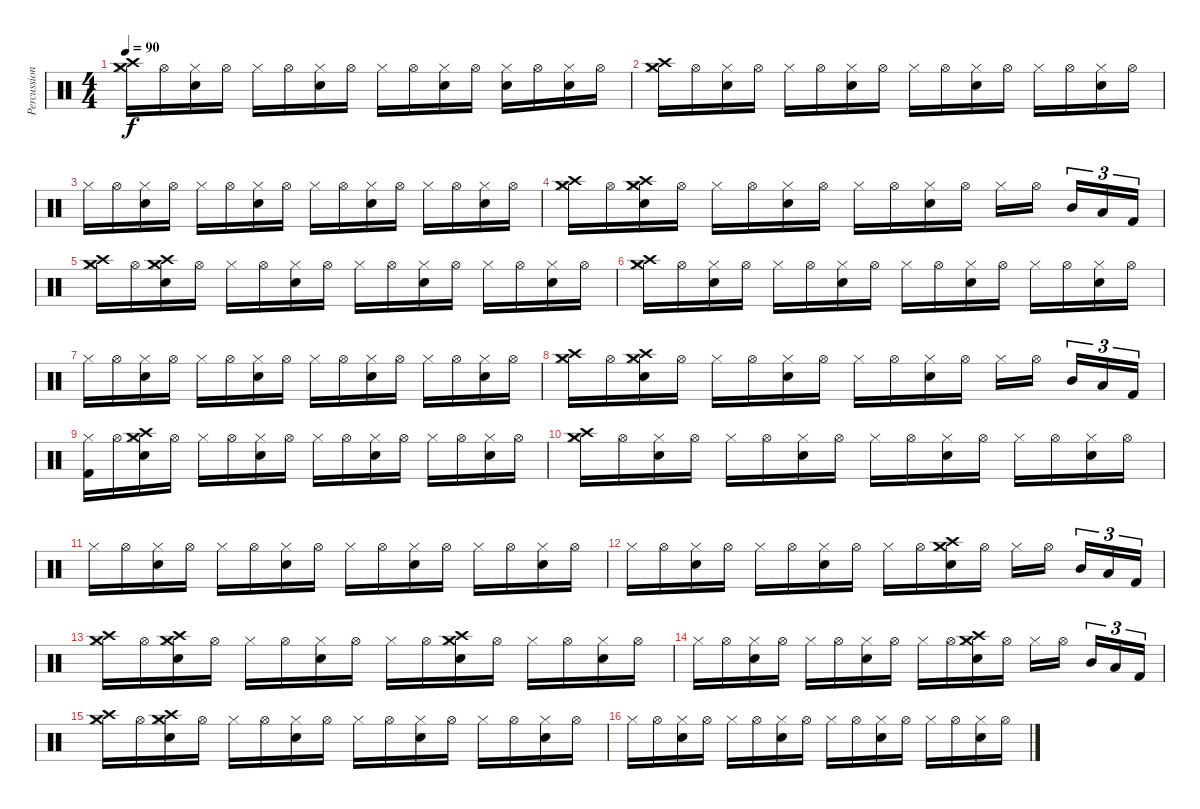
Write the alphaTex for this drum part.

\track ("Percussions" "Percussion") {instrument percussion}
\staff {score}
\articulation defaults
\ts (4 4)
\tempo 90
\clef neutral
\ks c
("Crash high (hit)" "Hi-Hat (closed)" "Crash medium (hit)").16{dy f} "Hi-Hat (open)".16 ("Snare (hit) 2" "Hi-Hat (closed)").16 "Hi-Hat (open)".16 "Hi-Hat (closed)".16 "Hi-Hat (open)".16 ("Snare (hit) 2" "Hi-Hat (closed)").16 "Hi-Hat (open)".16 "Hi-Hat (closed)".16 "Hi-Hat (open)".16 ("Snare (hit) 2" "Hi-Hat (closed)").16 "Hi-Hat (open)".16 ("Snare (hit) 2" "Hi-Hat (closed)").16 "Hi-Hat (open)".16 ("Snare (hit) 2" "Hi-Hat (closed)").16 "Hi-Hat (open)".16 |
("Crash high (hit)" "Hi-Hat (closed)" "Crash medium (hit)").16 "Hi-Hat (open)".16 ("Snare (hit) 2" "Hi-Hat (closed)").16 "Hi-Hat (open)".16 "Hi-Hat (closed)".16 "Hi-Hat (open)".16 ("Snare (hit) 2" "Hi-Hat (closed)").16 "Hi-Hat (open)".16 "Hi-Hat (closed)".16 "Hi-Hat (open)".16 ("Snare (hit) 2" "Hi-Hat (closed)").16 "Hi-Hat (open)".16 "Hi-Hat (closed)".16 "Hi-Hat (open)".16 ("Snare (hit) 2" "Hi-Hat (closed)").16 "Hi-Hat (open)".16 |
"Hi-Hat (closed)".16 "Hi-Hat (open)".16 ("Snare (hit) 2" "Hi-Hat (closed)").16 "Hi-Hat (open)".16 "Hi-Hat (closed)".16 "Hi-Hat (open)".16 ("Snare (hit) 2" "Hi-Hat (closed)").16 "Hi-Hat (open)".16 "Hi-Hat (closed)".16 "Hi-Hat (open)".16 ("Snare (hit) 2" "Hi-Hat (closed)").16 "Hi-Hat (open)".16 "Hi-Hat (closed)".16 "Hi-Hat (open)".16 ("Snare (hit) 2" "Hi-Hat (closed)").16 "Hi-Hat (open)".16 |
("Crash high (hit)" "Hi-Hat (closed)" "Crash medium (hit)").16 "Hi-Hat (open)".16 ("Snare (hit) 2" "Hi-Hat (closed)" "Crash high (hit)" "Crash medium (hit)").16 "Hi-Hat (open)".16 "Hi-Hat (closed)".16 "Hi-Hat (open)".16 ("Snare (hit) 2" "Hi-Hat (closed)").16 "Hi-Hat (open)".16 "Hi-Hat (closed)".16 "Hi-Hat (open)".16 ("Snare (hit) 2" "Hi-Hat (closed)").16 "Hi-Hat (open)".16 "Hi-Hat (closed)".16 "Hi-Hat (open)".16 "Mid Tom (hit)".16{tu (3 2)} "Low Tom (hit)".16{tu (3 2)} "Kick (hit) 2".16{tu (3 2)} |
("Crash high (hit)" "Hi-Hat (closed)" "Crash medium (hit)").16 "Hi-Hat (open)".16 ("Snare (hit) 2" "Hi-Hat (closed)" "Crash high (hit)" "Crash medium (hit)").16 "Hi-Hat (open)".16 "Hi-Hat (closed)".16 "Hi-Hat (open)".16 ("Snare (hit) 2" "Hi-Hat (closed)").16 "Hi-Hat (open)".16 "Hi-Hat (closed)".16 "Hi-Hat (open)".16 ("Snare (hit) 2" "Hi-Hat (closed)").16 "Hi-Hat (open)".16 "Hi-Hat (closed)".16 "Hi-Hat (open)".16 ("Snare (hit) 2" "Hi-Hat (closed)").16 "Hi-Hat (open)".16 |
("Crash high (hit)" "Hi-Hat (closed)" "Crash medium (hit)").16 "Hi-Hat (open)".16 ("Snare (hit) 2" "Hi-Hat (closed)").16 "Hi-Hat (open)".16 "Hi-Hat (closed)".16 "Hi-Hat (open)".16 ("Snare (hit) 2" "Hi-Hat (closed)").16 "Hi-Hat (open)".16 "Hi-Hat (closed)".16 "Hi-Hat (open)".16 ("Snare (hit) 2" "Hi-Hat (closed)").16 "Hi-Hat (open)".16 "Hi-Hat (closed)".16 "Hi-Hat (open)".16 ("Snare (hit) 2" "Hi-Hat (closed)").16 "Hi-Hat (open)".16 |
"Hi-Hat (closed)".16 "Hi-Hat (open)".16 ("Snare (hit) 2" "Hi-Hat (closed)").16 "Hi-Hat (open)".16 "Hi-Hat (closed)".16 "Hi-Hat (open)".16 ("Snare (hit) 2" "Hi-Hat (closed)").16 "Hi-Hat (open)".16 "Hi-Hat (closed)".16 "Hi-Hat (open)".16 ("Snare (hit) 2" "Hi-Hat (closed)").16 "Hi-Hat (open)".16 "Hi-Hat (closed)".16 "Hi-Hat (open)".16 ("Snare (hit) 2" "Hi-Hat (closed)").16 "Hi-Hat (open)".16 |
("Crash high (hit)" "Hi-Hat (closed)" "Crash medium (hit)").16 "Hi-Hat (open)".16 ("Snare (hit) 2" "Hi-Hat (closed)" "Crash high (hit)" "Crash medium (hit)").16 "Hi-Hat (open)".16 "Hi-Hat (closed)".16 "Hi-Hat (open)".16 ("Snare (hit) 2" "Hi-Hat (closed)").16 "Hi-Hat (open)".16 "Hi-Hat (closed)".16 "Hi-Hat (open)".16 ("Snare (hit) 2" "Hi-Hat (closed)").16 "Hi-Hat (open)".16 "Hi-Hat (closed)".16 "Hi-Hat (open)".16 "Mid Tom (hit)".16{tu (3 2)} "Low Tom (hit)".16{tu (3 2)} "Kick (hit) 2".16{tu (3 2)} |
("Hi-Hat (closed)" "Kick (hit) 2").16 "Hi-Hat (open)".16 ("Snare (hit) 2" "Hi-Hat (closed)" "Crash high (hit)" "Crash medium (hit)").16 "Hi-Hat (open)".16 "Hi-Hat (closed)".16 "Hi-Hat (open)".16 ("Snare (hit) 2" "Hi-Hat (closed)").16 "Hi-Hat (open)".16 "Hi-Hat (closed)".16 "Hi-Hat (open)".16 ("Snare (hit) 2" "Hi-Hat (closed)").16 "Hi-Hat (open)".16 "Hi-Hat (closed)".16 "Hi-Hat (open)".16 ("Snare (hit) 2" "Hi-Hat (closed)").16 "Hi-Hat (open)".16 |
("Crash high (hit)" "Hi-Hat (closed)" "Crash medium (hit)").16 "Hi-Hat (open)".16 ("Snare (hit) 2" "Hi-Hat (closed)").16 "Hi-Hat (open)".16 "Hi-Hat (closed)".16 "Hi-Hat (open)".16 ("Snare (hit) 2" "Hi-Hat (closed)").16 "Hi-Hat (open)".16 "Hi-Hat (closed)".16 "Hi-Hat (open)".16 ("Snare (hit) 2" "Hi-Hat (closed)").16 "Hi-Hat (open)".16 "Hi-Hat (closed)".16 "Hi-Hat (open)".16 ("Snare (hit) 2" "Hi-Hat (closed)").16 "Hi-Hat (open)".16 |
"Hi-Hat (closed)".16 "Hi-Hat (open)".16 ("Snare (hit) 2" "Hi-Hat (closed)").16 "Hi-Hat (open)".16 "Hi-Hat (closed)".16 "Hi-Hat (open)".16 ("Snare (hit) 2" "Hi-Hat (closed)").16 "Hi-Hat (open)".16 "Hi-Hat (closed)".16 "Hi-Hat (open)".16 ("Snare (hit) 2" "Hi-Hat (closed)").16 "Hi-Hat (open)".16 "Hi-Hat (closed)".16 "Hi-Hat (open)".16 ("Snare (hit) 2" "Hi-Hat (closed)").16 "Hi-Hat (open)".16 |
"Hi-Hat (closed)".16 "Hi-Hat (open)".16 ("Snare (hit) 2" "Hi-Hat (closed)").16 "Hi-Hat (open)".16 "Hi-Hat (closed)".16 "Hi-Hat (open)".16 ("Snare (hit) 2" "Hi-Hat (closed)").16 "Hi-Hat (open)".16 "Hi-Hat (closed)".16 "Hi-Hat (open)".16 ("Snare (hit) 2" "Hi-Hat (closed)" "Crash high (hit)" "Crash medium (hit)").16 "Hi-Hat (open)".16 "Hi-Hat (closed)".16 "Hi-Hat (open)".16 "Mid Tom (hit)".16{tu (3 2)} "Low Tom (hit)".16{tu (3 2)} "Kick (hit) 2".16{tu (3 2)} |
("Crash high (hit)" "Hi-Hat (closed)" "Crash medium (hit)").16 "Hi-Hat (open)".16 ("Snare (hit) 2" "Hi-Hat (closed)" "Crash high (hit)" "Crash medium (hit)").16 "Hi-Hat (open)".16 "Hi-Hat (closed)".16 "Hi-Hat (open)".16 ("Snare (hit) 2" "Hi-Hat (closed)").16 "Hi-Hat (open)".16 "Hi-Hat (closed)".16 "Hi-Hat (open)".16 ("Snare (hit) 2" "Hi-Hat (closed)" "Crash high (hit)" "Crash medium (hit)").16 "Hi-Hat (open)".16 "Hi-Hat (closed)".16 "Hi-Hat (open)".16 ("Snare (hit) 2" "Hi-Hat (closed)").16 "Hi-Hat (open)".16 |
"Hi-Hat (closed)".16 "Hi-Hat (open)".16 ("Snare (hit) 2" "Hi-Hat (closed)").16 "Hi-Hat (open)".16 "Hi-Hat (closed)".16 "Hi-Hat (open)".16 ("Snare (hit) 2" "Hi-Hat (closed)").16 "Hi-Hat (open)".16 "Hi-Hat (closed)".16 "Hi-Hat (open)".16 ("Snare (hit) 2" "Hi-Hat (closed)" "Crash high (hit)" "Crash medium (hit)").16 "Hi-Hat (open)".16 "Hi-Hat (closed)".16 "Hi-Hat (open)".16 "Mid Tom (hit)".16{tu (3 2)} "Low Tom (hit)".16{tu (3 2)} "Kick (hit) 2".16{tu (3 2)} |
("Crash high (hit)" "Hi-Hat (closed)" "Crash medium (hit)").16 "Hi-Hat (open)".16 ("Snare (hit) 2" "Hi-Hat (closed)" "Crash high (hit)" "Crash medium (hit)").16 "Hi-Hat (open)".16 "Hi-Hat (closed)".16 "Hi-Hat (open)".16 ("Snare (hit) 2" "Hi-Hat (closed)").16 "Hi-Hat (open)".16 "Hi-Hat (closed)".16 "Hi-Hat (open)".16 ("Snare (hit) 2" "Hi-Hat (closed)").16 "Hi-Hat (open)".16 "Hi-Hat (closed)".16 "Hi-Hat (open)".16 ("Snare (hit) 2" "Hi-Hat (closed)").16 "Hi-Hat (open)".16 |
"Hi-Hat (closed)".16 "Hi-Hat (open)".16 ("Snare (hit) 2" "Hi-Hat (closed)").16 "Hi-Hat (open)".16 "Hi-Hat (closed)".16 "Hi-Hat (open)".16 ("Snare (hit) 2" "Hi-Hat (closed)").16 "Hi-Hat (open)".16 "Hi-Hat (closed)".16 "Hi-Hat (open)".16 ("Snare (hit) 2" "Hi-Hat (closed)").16 "Hi-Hat (open)".16 "Hi-Hat (closed)".16 "Hi-Hat (open)".16 ("Snare (hit) 2" "Hi-Hat (closed)").16 "Hi-Hat (open)".16
